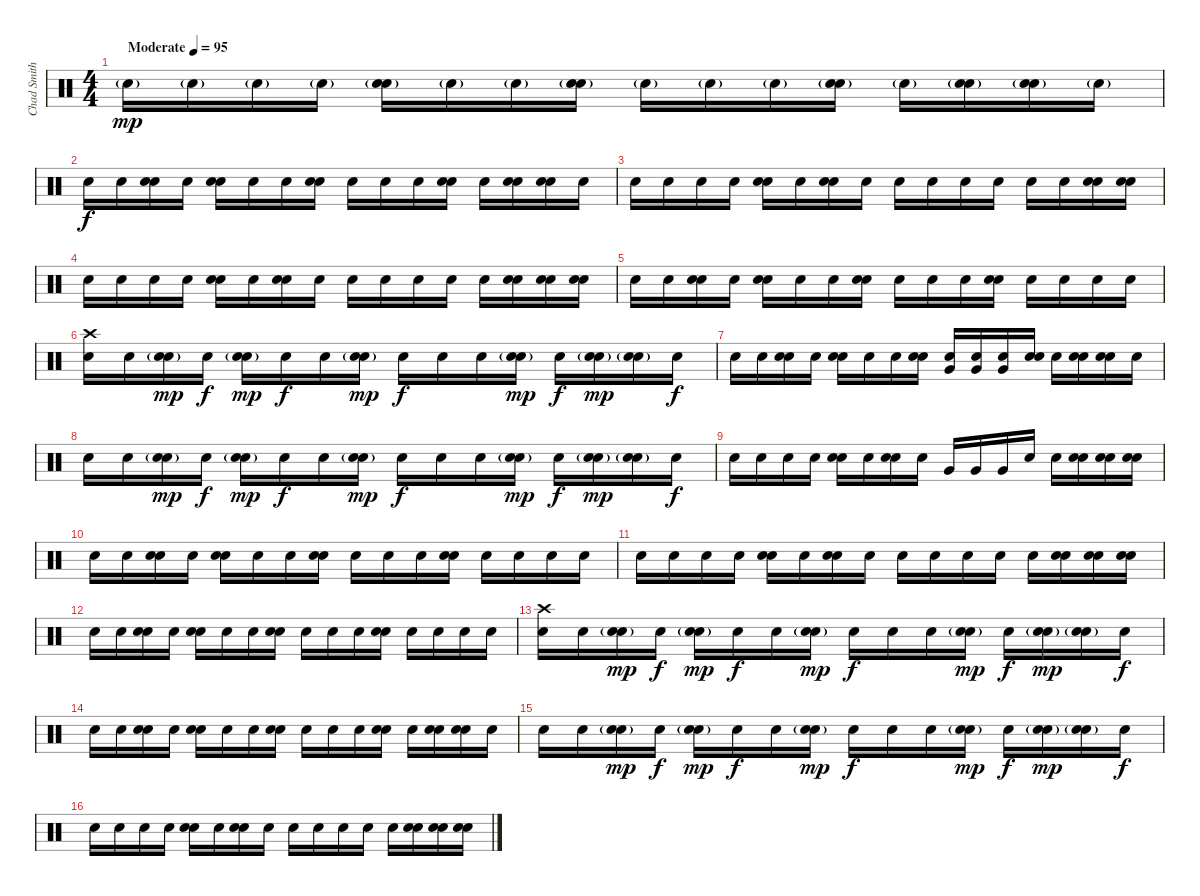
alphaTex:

\track ("Chad Smith/Drums" "Chad Smith") {instrument percussion}
\staff {score}
\articulation defaults
\ts (4 4)
\tempo (95 "Moderate")
\clef neutral
\ks c "Electric Snare (hit)"{g}.16{dy mp} "Electric Snare (hit)"{g}.16 "Electric Snare (hit)"{g}.16 "Electric Snare (hit)"{g}.16
("Snare (hit) 2" "Electric Snare (hit)"{g}).16 "Electric Snare (hit)"{g}.16 "Electric Snare (hit)"{g}.16 ("Snare (hit) 2" "Electric Snare (hit)"{g}).16 "Electric Snare (hit)"{g}.16 "Electric Snare (hit)"{g}.16 "Electric Snare (hit)"{g}.16 ("Snare (hit) 2" "Electric Snare (hit)"{g}).16 "Electric Snare (hit)"{g}.16 ("Snare (hit) 2" "Electric Snare (hit)"{g}).16 ("Snare (hit) 2" "Electric Snare (hit)"{g}).16 "Electric Snare (hit)"{g}.16 |
"Electric Snare (hit)".16{dy f} "Electric Snare (hit)".16 ("Snare (hit) 2" "Electric Snare (hit)").16 "Electric Snare (hit)".16 ("Snare (hit) 2" "Electric Snare (hit)").16 "Electric Snare (hit)".16 "Electric Snare (hit)".16 ("Snare (hit) 2" "Electric Snare (hit)").16 "Electric Snare (hit)".16 "Electric Snare (hit)".16 "Electric Snare (hit)".16 ("Snare (hit) 2" "Electric Snare (hit)").16 "Electric Snare (hit)".16 ("Snare (hit) 2" "Electric Snare (hit)").16 ("Snare (hit) 2" "Electric Snare (hit)").16 "Electric Snare (hit)".16 |
"Electric Snare (hit)".16 "Electric Snare (hit)".16 "Electric Snare (hit)".16 "Electric Snare (hit)".16 ("Snare (hit) 2" "Electric Snare (hit)").16 "Electric Snare (hit)".16 ("Snare (hit) 2" "Electric Snare (hit)").16 "Electric Snare (hit)".16 "Electric Snare (hit)".16 "Electric Snare (hit)".16 "Electric Snare (hit)".16 "Electric Snare (hit)".16 "Electric Snare (hit)".16 "Electric Snare (hit)".16 ("Snare (hit) 2" "Electric Snare (hit)").16 ("Snare (hit) 2" "Electric Snare (hit)").16 |
"Electric Snare (hit)".16 "Electric Snare (hit)".16 "Electric Snare (hit)".16 "Electric Snare (hit)".16 ("Snare (hit) 2" "Electric Snare (hit)").16 "Electric Snare (hit)".16 ("Snare (hit) 2" "Electric Snare (hit)").16 "Electric Snare (hit)".16 "Electric Snare (hit)".16 "Electric Snare (hit)".16 "Electric Snare (hit)".16 "Electric Snare (hit)".16 "Electric Snare (hit)".16 ("Snare (hit) 2" "Electric Snare (hit)").16 ("Snare (hit) 2" "Electric Snare (hit)").16 ("Snare (hit) 2" "Electric Snare (hit)").16 |
"Electric Snare (hit)".16 "Electric Snare (hit)".16 ("Snare (hit) 2" "Electric Snare (hit)").16 "Electric Snare (hit)".16 ("Snare (hit) 2" "Electric Snare (hit)").16 "Electric Snare (hit)".16 "Electric Snare (hit)".16 ("Snare (hit) 2" "Electric Snare (hit)").16 "Electric Snare (hit)".16 "Electric Snare (hit)".16 "Electric Snare (hit)".16 ("Snare (hit) 2" "Electric Snare (hit)").16 "Electric Snare (hit)".16 "Electric Snare (hit)".16 "Electric Snare (hit)".16 "Electric Snare (hit)".16 |
("Electric Snare (hit)" "Crash high (hit)").16 "Electric Snare (hit)".16 ("Snare (hit) 2" "Electric Snare (hit)"{g}).16{dy mp} "Electric Snare (hit)".16{dy f} ("Snare (hit) 2" "Electric Snare (hit)"{g}).16{dy mp} "Electric Snare (hit)".16{dy f} "Electric Snare (hit)".16 ("Snare (hit) 2" "Electric Snare (hit)"{g}).16{dy mp} "Electric Snare (hit)".16{dy f} "Electric Snare (hit)".16 "Electric Snare (hit)".16 ("Snare (hit) 2" "Electric Snare (hit)"{g}).16{dy mp} "Electric Snare (hit)".16{dy f} ("Snare (hit) 2" "Electric Snare (hit)"{g}).16{dy mp} ("Snare (hit) 2" "Electric Snare (hit)"{g}).16 "Electric Snare (hit)".16{dy f} |
"Electric Snare (hit)".16 "Electric Snare (hit)".16 ("Snare (hit) 2" "Electric Snare (hit)").16 "Electric Snare (hit)".16 ("Snare (hit) 2" "Electric Snare (hit)").16 "Electric Snare (hit)".16 "Electric Snare (hit)".16 ("Snare (hit) 2" "Electric Snare (hit)").16 ("Very Low Tom (hit)" "Electric Snare (hit)").16 ("Very Low Tom (hit)" "Electric Snare (hit)").16 ("Very Low Tom (hit)" "Electric Snare (hit)").16 ("Snare (hit) 2" "Electric Snare (hit)").16 "Electric Snare (hit)".16 ("Snare (hit) 2" "Electric Snare (hit)").16 ("Snare (hit) 2" "Electric Snare (hit)").16 "Electric Snare (hit)".16 |
"Electric Snare (hit)".16 "Electric Snare (hit)".16 ("Snare (hit) 2" "Electric Snare (hit)"{g}).16{dy mp} "Electric Snare (hit)".16{dy f} ("Snare (hit) 2" "Electric Snare (hit)"{g}).16{dy mp} "Electric Snare (hit)".16{dy f} "Electric Snare (hit)".16 ("Snare (hit) 2" "Electric Snare (hit)"{g}).16{dy mp} "Electric Snare (hit)".16{dy f} "Electric Snare (hit)".16 "Electric Snare (hit)".16 ("Snare (hit) 2" "Electric Snare (hit)"{g}).16{dy mp} "Electric Snare (hit)".16{dy f} ("Snare (hit) 2" "Electric Snare (hit)"{g}).16{dy mp} ("Snare (hit) 2" "Electric Snare (hit)"{g}).16 "Electric Snare (hit)".16{dy f} |
"Electric Snare (hit)".16 "Electric Snare (hit)".16 "Electric Snare (hit)".16 "Electric Snare (hit)".16 ("Snare (hit) 2" "Electric Snare (hit)").16 "Electric Snare (hit)".16 ("Snare (hit) 2" "Electric Snare (hit)").16 "Electric Snare (hit)".16 "Very Low Tom (hit)".16 "Very Low Tom (hit)".16 "Very Low Tom (hit)".16 "Electric Snare (hit)".16 "Electric Snare (hit)".16 ("Snare (hit) 2" "Electric Snare (hit)").16 ("Snare (hit) 2" "Electric Snare (hit)").16 ("Snare (hit) 2" "Electric Snare (hit)").16 |
"Electric Snare (hit)".16 "Electric Snare (hit)".16 ("Snare (hit) 2" "Electric Snare (hit)").16 "Electric Snare (hit)".16 ("Snare (hit) 2" "Electric Snare (hit)").16 "Electric Snare (hit)".16 "Electric Snare (hit)".16 ("Snare (hit) 2" "Electric Snare (hit)").16 "Electric Snare (hit)".16 "Electric Snare (hit)".16 "Electric Snare (hit)".16 ("Snare (hit) 2" "Electric Snare (hit)").16 "Electric Snare (hit)".16 "Electric Snare (hit)".16 "Electric Snare (hit)".16 "Electric Snare (hit)".16 |
"Electric Snare (hit)".16 "Electric Snare (hit)".16 "Electric Snare (hit)".16 "Electric Snare (hit)".16 ("Snare (hit) 2" "Electric Snare (hit)").16 "Electric Snare (hit)".16 ("Snare (hit) 2" "Electric Snare (hit)").16 "Electric Snare (hit)".16 "Electric Snare (hit)".16 "Electric Snare (hit)".16 "Electric Snare (hit)".16 "Electric Snare (hit)".16 "Electric Snare (hit)".16 ("Snare (hit) 2" "Electric Snare (hit)").16 ("Snare (hit) 2" "Electric Snare (hit)").16 ("Snare (hit) 2" "Electric Snare (hit)").16 |
"Electric Snare (hit)".16 "Electric Snare (hit)".16 ("Snare (hit) 2" "Electric Snare (hit)").16 "Electric Snare (hit)".16 ("Snare (hit) 2" "Electric Snare (hit)").16 "Electric Snare (hit)".16 "Electric Snare (hit)".16 ("Snare (hit) 2" "Electric Snare (hit)").16 "Electric Snare (hit)".16 "Electric Snare (hit)".16 "Electric Snare (hit)".16 ("Snare (hit) 2" "Electric Snare (hit)").16 "Electric Snare (hit)".16 "Electric Snare (hit)".16 "Electric Snare (hit)".16 "Electric Snare (hit)".16 |
("Electric Snare (hit)" "Crash high (hit)").16 "Electric Snare (hit)".16 ("Snare (hit) 2" "Electric Snare (hit)"{g}).16{dy mp} "Electric Snare (hit)".16{dy f} ("Snare (hit) 2" "Electric Snare (hit)"{g}).16{dy mp} "Electric Snare (hit)".16{dy f} "Electric Snare (hit)".16 ("Snare (hit) 2" "Electric Snare (hit)"{g}).16{dy mp} "Electric Snare (hit)".16{dy f} "Electric Snare (hit)".16 "Electric Snare (hit)".16 ("Snare (hit) 2" "Electric Snare (hit)"{g}).16{dy mp} "Electric Snare (hit)".16{dy f} ("Snare (hit) 2" "Electric Snare (hit)"{g}).16{dy mp} ("Snare (hit) 2" "Electric Snare (hit)"{g}).16 "Electric Snare (hit)".16{dy f} |
"Electric Snare (hit)".16 "Electric Snare (hit)".16 ("Snare (hit) 2" "Electric Snare (hit)").16 "Electric Snare (hit)".16 ("Snare (hit) 2" "Electric Snare (hit)").16 "Electric Snare (hit)".16 "Electric Snare (hit)".16 ("Snare (hit) 2" "Electric Snare (hit)").16 "Electric Snare (hit)".16 "Electric Snare (hit)".16 "Electric Snare (hit)".16 ("Snare (hit) 2" "Electric Snare (hit)").16 "Electric Snare (hit)".16 ("Snare (hit) 2" "Electric Snare (hit)").16 ("Snare (hit) 2" "Electric Snare (hit)").16 "Electric Snare (hit)".16 |
"Electric Snare (hit)".16 "Electric Snare (hit)".16 ("Snare (hit) 2" "Electric Snare (hit)"{g}).16{dy mp} "Electric Snare (hit)".16{dy f} ("Snare (hit) 2" "Electric Snare (hit)"{g}).16{dy mp} "Electric Snare (hit)".16{dy f} "Electric Snare (hit)".16 ("Snare (hit) 2" "Electric Snare (hit)"{g}).16{dy mp} "Electric Snare (hit)".16{dy f} "Electric Snare (hit)".16 "Electric Snare (hit)".16 ("Snare (hit) 2" "Electric Snare (hit)"{g}).16{dy mp} "Electric Snare (hit)".16{dy f} ("Snare (hit) 2" "Electric Snare (hit)"{g}).16{dy mp} ("Snare (hit) 2" "Electric Snare (hit)"{g}).16 "Electric Snare (hit)".16{dy f} |
"Electric Snare (hit)".16 "Electric Snare (hit)".16 "Electric Snare (hit)".16 "Electric Snare (hit)".16 ("Snare (hit) 2" "Electric Snare (hit)").16 "Electric Snare (hit)".16 ("Snare (hit) 2" "Electric Snare (hit)").16 "Electric Snare (hit)".16 "Electric Snare (hit)".16 "Electric Snare (hit)".16 "Electric Snare (hit)".16 "Electric Snare (hit)".16 "Electric Snare (hit)".16 ("Snare (hit) 2" "Electric Snare (hit)").16 ("Snare (hit) 2" "Electric Snare (hit)").16 ("Snare (hit) 2" "Electric Snare (hit)").16
